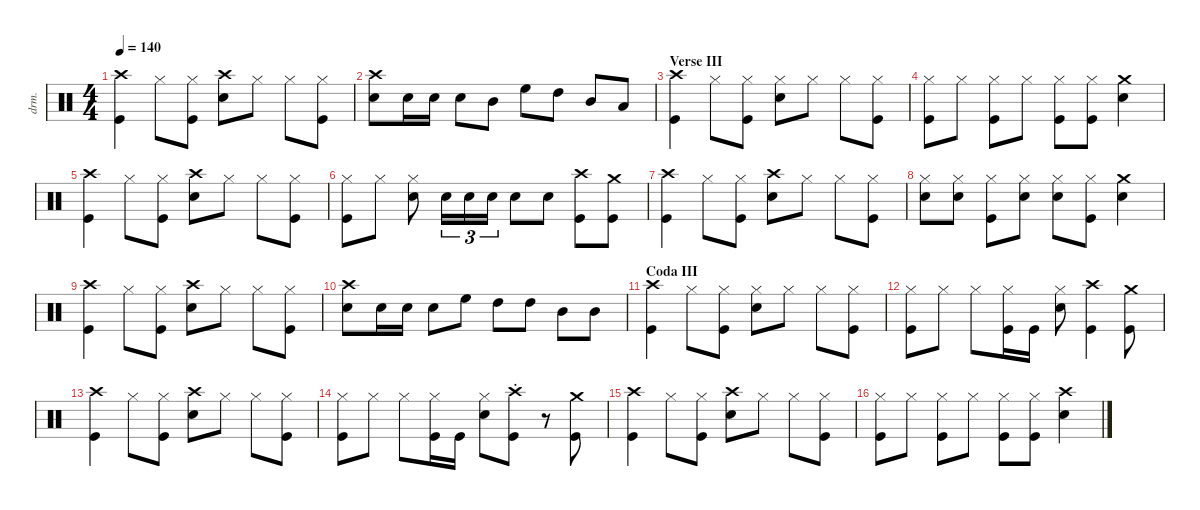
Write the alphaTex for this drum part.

\defaultSystemsLayout 4
\hideDynamics
\bracketExtendMode nobrackets
\otherSystemsTrackNameOrientation horizontal
\track ("Drums" "drm.") {multiBarRest instrument percussion}
\staff
\articulation defaults
\ts (4 4)
\tempo 140
\clef neutral
\ks c
("Crash high (hit)" "Kick (hit)").4{dy f} "Hi-Hat (closed)".8 ("Hi-Hat (closed)" "Kick (hit)").8 ("Snare (hit) 2" "Crash high (hit)").8 "Hi-Hat (closed)".8 "Hi-Hat (closed)".8 ("Hi-Hat (closed)" "Kick (hit)").8 |
("Crash high (hit)" "Snare (hit) 2").8 "Snare (hit) 2".16 "Snare (hit) 2".16 "Snare (hit) 2".8 "Mid Tom (hit)".8{dy ff} "High Floor Tom (hit)".8 "High Tom (hit)".8 "Mid Tom (hit)".8 "Low Tom (hit)".8 |
\section ("" "Verse III")
("Crash high (hit)" "Kick (hit)").4{dy f} "Hi-Hat (closed)".8 ("Hi-Hat (closed)" "Kick (hit)").8 ("Hi-Hat (closed)" "Snare (hit) 2").8 "Hi-Hat (closed)".8 "Hi-Hat (closed)".8 ("Hi-Hat (closed)" "Kick (hit)").8 |
("Kick (hit)" "Hi-Hat (closed)").8 "Hi-Hat (closed)".8 ("Hi-Hat (closed)" "Kick (hit)").8 "Hi-Hat (closed)".8 ("Hi-Hat (closed)" "Kick (hit)").8 ("Hi-Hat (closed)" "Kick (hit)").8 ("Snare (hit) 2" "Crash medium (hit)").4 |
("Crash high (hit)" "Kick (hit)").4 "Hi-Hat (closed)".8 ("Hi-Hat (closed)" "Kick (hit)").8 ("Snare (hit) 2" "Crash high (hit)").8 "Hi-Hat (closed)".8 "Hi-Hat (closed)".8 ("Hi-Hat (closed)" "Kick (hit)").8 |
("Hi-Hat (closed)" "Kick (hit)").8 "Hi-Hat (closed)".8 ("Hi-Hat (closed)" "Snare (hit) 2").8 "Snare (hit) 2".16{tu (3 2) dy mf} "Snare (hit) 2".16{tu (3 2)} "Snare (hit) 2".16{tu (3 2)} "Snare (hit) 2".8 "Snare (hit) 2".8 ("Kick (hit)" "Crash high (hit)").8{dy f} ("Kick (hit)" "Crash medium (hit)").8 |
("Crash high (hit)" "Kick (hit)").4 "Hi-Hat (closed)".8 ("Hi-Hat (closed)" "Kick (hit)").8 ("Snare (hit) 2" "Crash high (hit)").8 "Hi-Hat (closed)".8 "Hi-Hat (closed)".8 ("Hi-Hat (closed)" "Kick (hit)").8 |
("Snare (hit) 2" "Hi-Hat (closed)").8 ("Snare (hit) 2" "Hi-Hat (closed)").8 ("Kick (hit)" "Hi-Hat (closed)").8 ("Snare (hit) 2" "Hi-Hat (closed)").8 ("Snare (hit) 2" "Hi-Hat (closed)").8 ("Kick (hit)" "Hi-Hat (closed)").8 ("Snare (hit) 2" "Crash medium (hit)").4 |
("Crash high (hit)" "Kick (hit)").4 "Hi-Hat (closed)".8 ("Hi-Hat (closed)" "Kick (hit)").8 ("Snare (hit) 2" "Crash high (hit)").8 "Hi-Hat (closed)".8 "Hi-Hat (closed)".8 ("Hi-Hat (closed)" "Kick (hit)").8 |
("Snare (hit) 2" "Crash high (hit)").8 "Snare (hit) 2".16 "Snare (hit) 2".16 "Snare (hit) 2".8 "High Floor Tom (hit)".8{dy ff} "High Tom (hit)".8 "High Tom (hit)".8 "Mid Tom (hit)".8 "Mid Tom (hit)".8 |
\section ("" "Coda III")
("Crash high (hit)" "Kick (hit)").4{dy f} "Hi-Hat (closed)".8 ("Hi-Hat (closed)" "Kick (hit)").8 ("Snare (hit) 2" "Hi-Hat (closed)").8 "Hi-Hat (closed)".8 "Hi-Hat (closed)".8 ("Hi-Hat (closed)" "Kick (hit)").8 |
("Kick (hit)" "Hi-Hat (closed)").8 "Hi-Hat (closed)".8 "Hi-Hat (closed)".8 ("Hi-Hat (closed)" "Kick (hit)").16 "Kick (hit)".16 ("Snare (hit) 2" "Hi-Hat (closed)").8 ("Kick (hit)" "Crash high (hit)").4 ("Kick (hit)" "Crash medium (hit)").8 |
("Crash high (hit)" "Kick (hit)").4 "Hi-Hat (closed)".8 ("Hi-Hat (closed)" "Kick (hit)").8 ("Snare (hit) 2" "Crash high (hit)").8 "Hi-Hat (closed)".8 "Hi-Hat (closed)".8 ("Hi-Hat (closed)" "Kick (hit)").8 |
("Kick (hit)" "Hi-Hat (closed)").8 "Hi-Hat (closed)".8 "Hi-Hat (closed)".8 ("Hi-Hat (closed)" "Kick (hit)").16 "Kick (hit)".16 ("Snare (hit) 2" "Hi-Hat (closed)").8 ("Kick (hit)"{st} "Crash high (hit)"{st}).8 r.8 ("Kick (hit)" "Crash medium (hit)").8 |
("Crash high (hit)" "Kick (hit)").4 "Hi-Hat (closed)".8 ("Hi-Hat (closed)" "Kick (hit)").8 ("Snare (hit) 2" "Crash high (hit)").8 "Hi-Hat (closed)".8 "Hi-Hat (closed)".8 ("Hi-Hat (closed)" "Kick (hit)").8 |
("Kick (hit)" "Hi-Hat (closed)").8 "Hi-Hat (closed)".8 ("Hi-Hat (closed)" "Kick (hit)").8 "Hi-Hat (closed)".8 ("Hi-Hat (closed)" "Kick (hit)").8 ("Hi-Hat (closed)" "Kick (hit)").8 ("Snare (hit) 2" "Crash high (hit)").4
